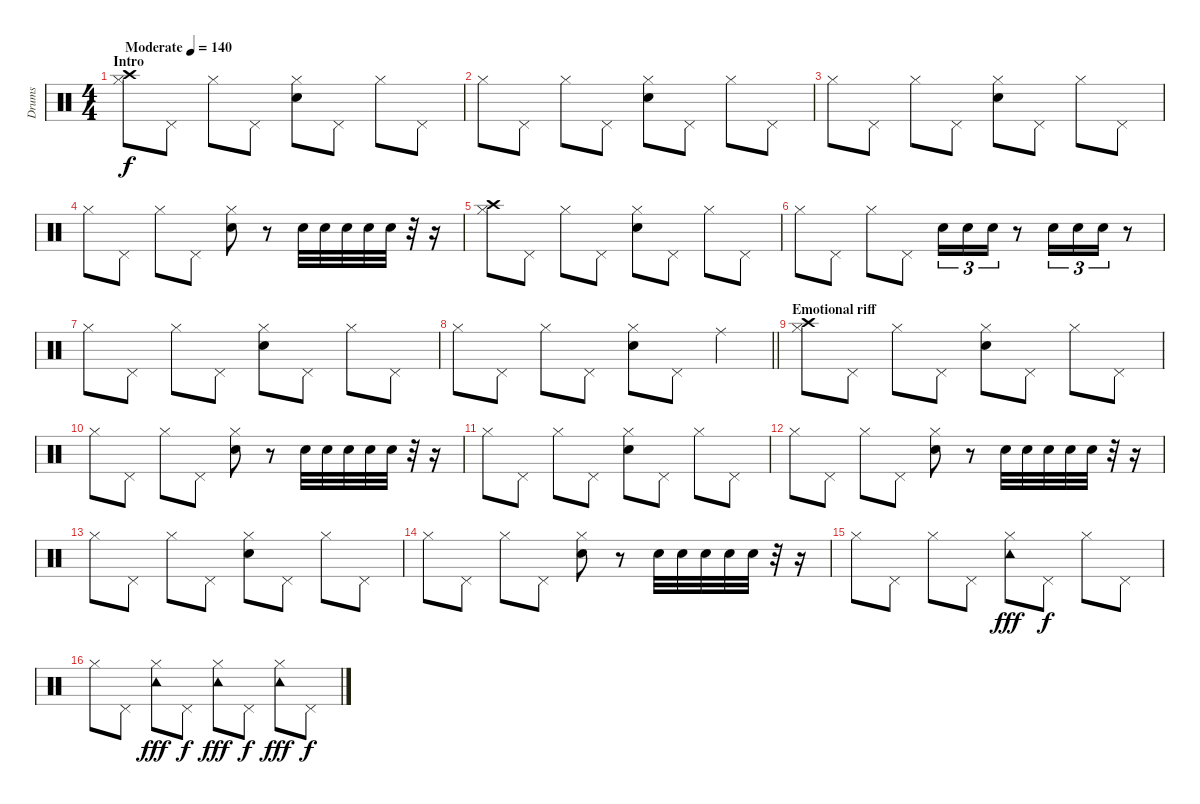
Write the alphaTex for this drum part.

\track ("Drums" "Drums") {instrument percussion}
\staff {score}
\articulation defaults
\ts (4 4)
\section ("" "Intro")
\tempo (140 "Moderate")
\clef neutral
\ks c
("Hi-Hat (closed)" "Crash high (hit)").8{dy f} "Pedal Hi-Hat (hit)".8 "Hi-Hat (closed)".8 "Pedal Hi-Hat (hit)".8 ("Hi-Hat (closed)" "Snare (hit) 2").8 "Pedal Hi-Hat (hit)".8 "Hi-Hat (closed)".8 "Pedal Hi-Hat (hit)".8 |
"Hi-Hat (closed)".8 "Pedal Hi-Hat (hit)".8 "Hi-Hat (closed)".8 "Pedal Hi-Hat (hit)".8 ("Hi-Hat (closed)" "Snare (hit) 2").8 "Pedal Hi-Hat (hit)".8 "Hi-Hat (closed)".8 "Pedal Hi-Hat (hit)".8 |
"Hi-Hat (closed)".8 "Pedal Hi-Hat (hit)".8 "Hi-Hat (closed)".8 "Pedal Hi-Hat (hit)".8 ("Hi-Hat (closed)" "Snare (hit) 2").8 "Pedal Hi-Hat (hit)".8 "Hi-Hat (closed)".8 "Pedal Hi-Hat (hit)".8 |
"Hi-Hat (closed)".8 "Pedal Hi-Hat (hit)".8 "Hi-Hat (closed)".8 "Pedal Hi-Hat (hit)".8 ("Hi-Hat (closed)" "Snare (hit) 2").8 r.8 "Electric Snare (hit)".32 "Electric Snare (hit)".32 "Electric Snare (hit)".32 "Electric Snare (hit)".32 "Electric Snare (hit)".32 r.32 r.16 |
("Hi-Hat (closed)" "Crash high (hit)").8 "Pedal Hi-Hat (hit)".8 "Hi-Hat (closed)".8 "Pedal Hi-Hat (hit)".8 ("Hi-Hat (closed)" "Snare (hit) 2").8 "Pedal Hi-Hat (hit)".8 "Hi-Hat (closed)".8 "Pedal Hi-Hat (hit)".8 |
"Hi-Hat (closed)".8 "Pedal Hi-Hat (hit)".8 "Hi-Hat (closed)".8 "Pedal Hi-Hat (hit)".8 "Electric Snare (hit)".16{tu (3 2)} "Electric Snare (hit)".16{tu (3 2)} "Electric Snare (hit)".16{tu (3 2)} r.8 "Electric Snare (hit)".16{tu (3 2)} "Electric Snare (hit)".16{tu (3 2)} "Electric Snare (hit)".16{tu (3 2)} r.8 |
"Hi-Hat (closed)".8 "Pedal Hi-Hat (hit)".8 "Hi-Hat (closed)".8 "Pedal Hi-Hat (hit)".8 ("Hi-Hat (closed)" "Snare (hit) 2").8 "Pedal Hi-Hat (hit)".8 "Hi-Hat (closed)".8 "Pedal Hi-Hat (hit)".8 |
\barLineRight lightlight "Hi-Hat (closed)".8 "Pedal Hi-Hat (hit)".8 "Hi-Hat (closed)".8 "Pedal Hi-Hat (hit)".8
("Hi-Hat (closed)" "Snare (hit) 2").8 "Pedal Hi-Hat (hit)".8 "Ride (middle)".4 |
\section ("" "Emotional riff")
("Crash high (hit)" "Hi-Hat (closed)").8 "Pedal Hi-Hat (hit)".8 "Hi-Hat (closed)".8 "Pedal Hi-Hat (hit)".8 ("Hi-Hat (closed)" "Snare (hit) 2").8 "Pedal Hi-Hat (hit)".8 "Hi-Hat (closed)".8 "Pedal Hi-Hat (hit)".8 |
"Hi-Hat (closed)".8 "Pedal Hi-Hat (hit)".8 "Hi-Hat (closed)".8 "Pedal Hi-Hat (hit)".8 ("Hi-Hat (closed)" "Snare (hit) 2").8 r.8 "Electric Snare (hit)".32 "Electric Snare (hit)".32 "Electric Snare (hit)".32 "Electric Snare (hit)".32 "Electric Snare (hit)".32 r.32 r.16 |
"Hi-Hat (closed)".8 "Pedal Hi-Hat (hit)".8 "Hi-Hat (closed)".8 "Pedal Hi-Hat (hit)".8 ("Hi-Hat (closed)" "Snare (hit) 2").8 "Pedal Hi-Hat (hit)".8 "Hi-Hat (closed)".8 "Pedal Hi-Hat (hit)".8 |
"Hi-Hat (closed)".8 "Pedal Hi-Hat (hit)".8 "Hi-Hat (closed)".8 "Pedal Hi-Hat (hit)".8 ("Hi-Hat (closed)" "Snare (hit) 2").8 r.8 "Electric Snare (hit)".32 "Electric Snare (hit)".32 "Electric Snare (hit)".32 "Electric Snare (hit)".32 "Electric Snare (hit)".32 r.32 r.16 |
"Hi-Hat (closed)".8 "Pedal Hi-Hat (hit)".8 "Hi-Hat (closed)".8 "Pedal Hi-Hat (hit)".8 ("Hi-Hat (closed)" "Snare (hit) 2").8 "Pedal Hi-Hat (hit)".8 "Hi-Hat (closed)".8 "Pedal Hi-Hat (hit)".8 |
"Hi-Hat (closed)".8 "Pedal Hi-Hat (hit)".8 "Hi-Hat (closed)".8 "Pedal Hi-Hat (hit)".8 ("Hi-Hat (closed)" "Snare (hit) 2").8 r.8 "Electric Snare (hit)".32 "Electric Snare (hit)".32 "Electric Snare (hit)".32 "Electric Snare (hit)".32 "Electric Snare (hit)".32 r.32 r.16 |
"Hi-Hat (closed)".8 "Pedal Hi-Hat (hit)".8 "Hi-Hat (closed)".8 "Pedal Hi-Hat (hit)".8 ("Tambourine (hit)" "Hi-Hat (closed)").8{dy fff} "Pedal Hi-Hat (hit)".8{dy f} "Hi-Hat (closed)".8 "Pedal Hi-Hat (hit)".8 |
"Hi-Hat (closed)".8 "Pedal Hi-Hat (hit)".8 ("Tambourine (hit)" "Hi-Hat (closed)").8{dy fff} "Pedal Hi-Hat (hit)".8{dy f} ("Tambourine (hit)" "Hi-Hat (closed)").8{dy fff} "Pedal Hi-Hat (hit)".8{dy f} ("Tambourine (hit)" "Hi-Hat (closed)").8{dy fff} "Pedal Hi-Hat (hit)".8{dy f}
